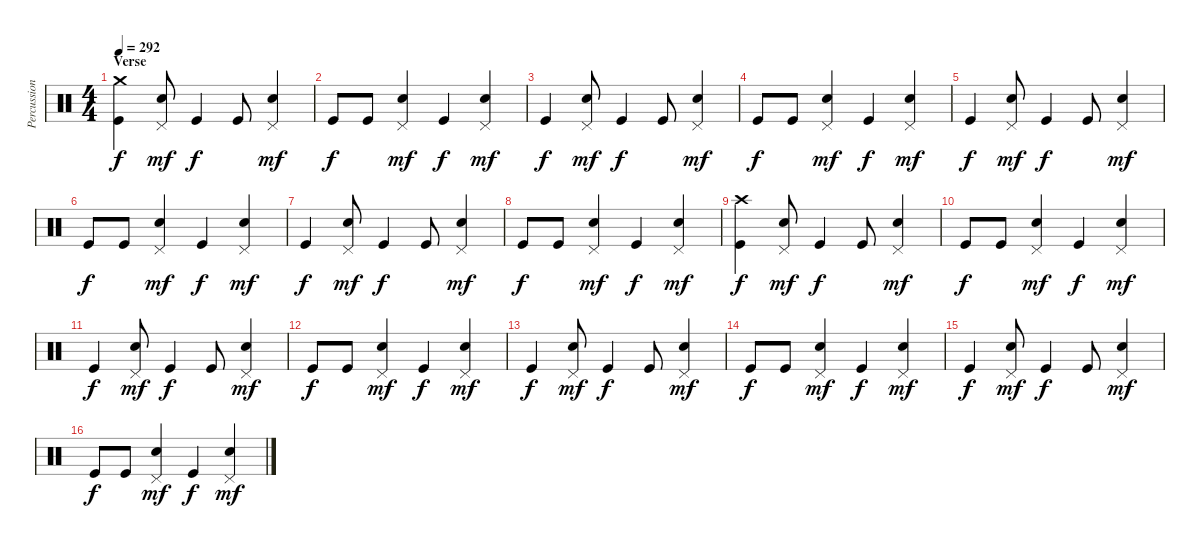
\track ("Percussion" "Percussion") {instrument percussion}
\staff {score}
\articulation defaults
\ts (4 4)
\section ("" "Verse")
\tempo 292
\clef neutral
\ks c
("Crash medium (hit)" "Kick (hit)").4{dy f} ("Pedal Hi-Hat (hit)" "Electric Snare (hit)").8{dy mf} "Kick (hit)".4{dy f} "Kick (hit)".8 ("Pedal Hi-Hat (hit)" "Electric Snare (hit)").4{dy mf} |
"Kick (hit)".8{dy f} "Kick (hit)".8 ("Pedal Hi-Hat (hit)" "Electric Snare (hit)").4{dy mf} "Kick (hit)".4{dy f} ("Pedal Hi-Hat (hit)" "Electric Snare (hit)").4{dy mf} |
"Kick (hit)".4{dy f} ("Pedal Hi-Hat (hit)" "Electric Snare (hit)").8{dy mf} "Kick (hit)".4{dy f} "Kick (hit)".8 ("Pedal Hi-Hat (hit)" "Electric Snare (hit)").4{dy mf} |
"Kick (hit)".8{dy f} "Kick (hit)".8 ("Pedal Hi-Hat (hit)" "Electric Snare (hit)").4{dy mf} "Kick (hit)".4{dy f} ("Pedal Hi-Hat (hit)" "Electric Snare (hit)").4{dy mf} |
"Kick (hit)".4{dy f} ("Pedal Hi-Hat (hit)" "Electric Snare (hit)").8{dy mf} "Kick (hit)".4{dy f} "Kick (hit)".8 ("Pedal Hi-Hat (hit)" "Electric Snare (hit)").4{dy mf} |
"Kick (hit)".8{dy f} "Kick (hit)".8 ("Pedal Hi-Hat (hit)" "Electric Snare (hit)").4{dy mf} "Kick (hit)".4{dy f} ("Pedal Hi-Hat (hit)" "Electric Snare (hit)").4{dy mf} |
"Kick (hit)".4{dy f} ("Pedal Hi-Hat (hit)" "Electric Snare (hit)").8{dy mf} "Kick (hit)".4{dy f} "Kick (hit)".8 ("Pedal Hi-Hat (hit)" "Electric Snare (hit)").4{dy mf} |
"Kick (hit)".8{dy f} "Kick (hit)".8 ("Pedal Hi-Hat (hit)" "Electric Snare (hit)").4{dy mf} "Kick (hit)".4{dy f} ("Pedal Hi-Hat (hit)" "Electric Snare (hit)").4{dy mf} |
("Crash high (hit)" "Kick (hit)").4{dy f} ("Pedal Hi-Hat (hit)" "Electric Snare (hit)").8{dy mf} "Kick (hit)".4{dy f} "Kick (hit)".8 ("Pedal Hi-Hat (hit)" "Electric Snare (hit)").4{dy mf} |
"Kick (hit)".8{dy f} "Kick (hit)".8 ("Pedal Hi-Hat (hit)" "Electric Snare (hit)").4{dy mf} "Kick (hit)".4{dy f} ("Pedal Hi-Hat (hit)" "Electric Snare (hit)").4{dy mf} |
"Kick (hit)".4{dy f} ("Pedal Hi-Hat (hit)" "Electric Snare (hit)").8{dy mf} "Kick (hit)".4{dy f} "Kick (hit)".8 ("Pedal Hi-Hat (hit)" "Electric Snare (hit)").4{dy mf} |
"Kick (hit)".8{dy f} "Kick (hit)".8 ("Pedal Hi-Hat (hit)" "Electric Snare (hit)").4{dy mf} "Kick (hit)".4{dy f} ("Pedal Hi-Hat (hit)" "Electric Snare (hit)").4{dy mf} |
"Kick (hit)".4{dy f} ("Pedal Hi-Hat (hit)" "Electric Snare (hit)").8{dy mf} "Kick (hit)".4{dy f} "Kick (hit)".8 ("Pedal Hi-Hat (hit)" "Electric Snare (hit)").4{dy mf} |
"Kick (hit)".8{dy f} "Kick (hit)".8 ("Pedal Hi-Hat (hit)" "Electric Snare (hit)").4{dy mf} "Kick (hit)".4{dy f} ("Pedal Hi-Hat (hit)" "Electric Snare (hit)").4{dy mf} |
"Kick (hit)".4{dy f} ("Pedal Hi-Hat (hit)" "Electric Snare (hit)").8{dy mf} "Kick (hit)".4{dy f} "Kick (hit)".8 ("Pedal Hi-Hat (hit)" "Electric Snare (hit)").4{dy mf} |
"Kick (hit)".8{dy f} "Kick (hit)".8 ("Pedal Hi-Hat (hit)" "Electric Snare (hit)").4{dy mf} "Kick (hit)".4{dy f} ("Pedal Hi-Hat (hit)" "Electric Snare (hit)").4{dy mf}
